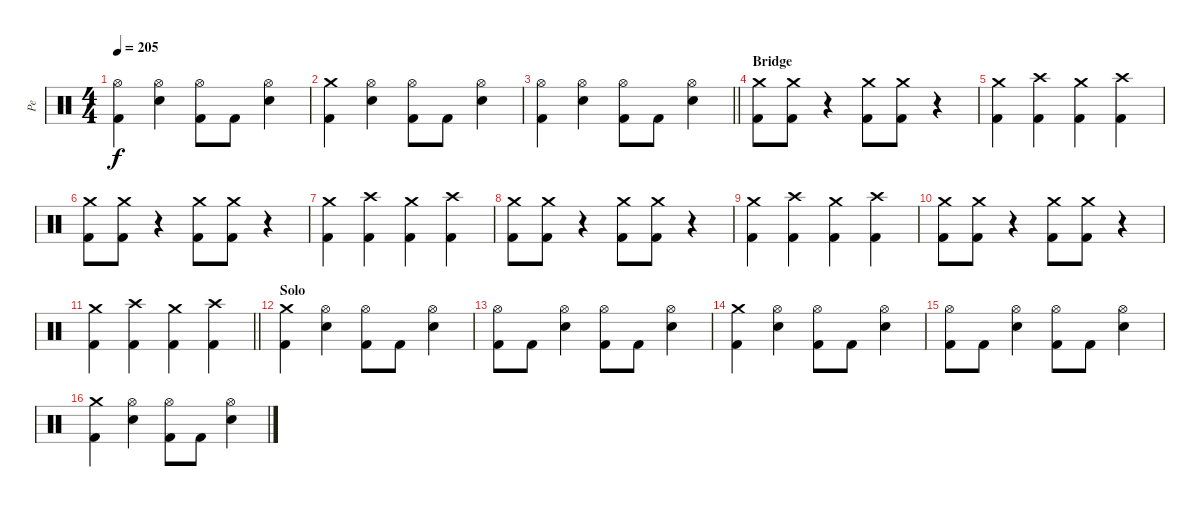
\track ("Pe" "Pe") {instrument percussion}
\staff {score}
\articulation defaults
\ts (4 4)
\tempo 205
\clef neutral
\ks c
("Hi-Hat (open)" "Kick (hit) 2").4{dy f} ("Hi-Hat (open)" "Electric Snare (hit)").4 ("Hi-Hat (open)" "Kick (hit) 2").8 "Kick (hit) 2".8 ("Hi-Hat (open)" "Electric Snare (hit)").4 |
("Crash medium (hit)" "Kick (hit) 2").4 ("Hi-Hat (open)" "Electric Snare (hit)").4 ("Hi-Hat (open)" "Kick (hit) 2").8 "Kick (hit) 2".8 ("Hi-Hat (open)" "Electric Snare (hit)").4 |
\barLineRight lightlight
("Hi-Hat (open)" "Kick (hit) 2").4 ("Hi-Hat (open)" "Electric Snare (hit)").4 ("Hi-Hat (open)" "Kick (hit) 2").8 "Kick (hit) 2".8 ("Hi-Hat (open)" "Electric Snare (hit)").4 |
\section ("" "Bridge")
("Crash medium (hit)" "Kick (hit) 2").8 ("Crash medium (hit)" "Kick (hit) 2").8 r.4 ("Crash medium (hit)" "Kick (hit) 2").8 ("Crash medium (hit)" "Kick (hit) 2").8 r.4 |
("Crash medium (hit)" "Kick (hit) 2").4 ("Crash high (hit)" "Kick (hit) 2").4 ("Crash medium (hit)" "Kick (hit) 2").4 ("Crash high (hit)" "Kick (hit) 2").4 |
("Crash medium (hit)" "Kick (hit) 2").8 ("Crash medium (hit)" "Kick (hit) 2").8 r.4 ("Crash medium (hit)" "Kick (hit) 2").8 ("Crash medium (hit)" "Kick (hit) 2").8 r.4 |
("Crash medium (hit)" "Kick (hit) 2").4 ("Crash high (hit)" "Kick (hit) 2").4 ("Crash medium (hit)" "Kick (hit) 2").4 ("Crash high (hit)" "Kick (hit) 2").4 |
("Crash medium (hit)" "Kick (hit) 2").8 ("Crash medium (hit)" "Kick (hit) 2").8 r.4 ("Crash medium (hit)" "Kick (hit) 2").8 ("Crash medium (hit)" "Kick (hit) 2").8 r.4 |
("Crash medium (hit)" "Kick (hit) 2").4 ("Crash high (hit)" "Kick (hit) 2").4 ("Crash medium (hit)" "Kick (hit) 2").4 ("Crash high (hit)" "Kick (hit) 2").4 |
("Crash medium (hit)" "Kick (hit) 2").8 ("Crash medium (hit)" "Kick (hit) 2").8 r.4 ("Crash medium (hit)" "Kick (hit) 2").8 ("Crash medium (hit)" "Kick (hit) 2").8 r.4 |
\barLineRight lightlight
("Crash medium (hit)" "Kick (hit) 2").4 ("Crash high (hit)" "Kick (hit) 2").4 ("Crash medium (hit)" "Kick (hit) 2").4 ("Crash high (hit)" "Kick (hit) 2").4 |
\section ("" "Solo")
("Crash medium (hit)" "Kick (hit) 2").4 ("Hi-Hat (open)" "Electric Snare (hit)").4 ("Hi-Hat (open)" "Kick (hit) 2").8 "Kick (hit) 2".8 ("Hi-Hat (open)" "Electric Snare (hit)").4 |
("Hi-Hat (open)" "Kick (hit) 2").8 "Kick (hit) 2".8 ("Hi-Hat (open)" "Electric Snare (hit)").4 ("Hi-Hat (open)" "Kick (hit) 2").8 "Kick (hit) 2".8 ("Hi-Hat (open)" "Electric Snare (hit)").4 |
("Crash medium (hit)" "Kick (hit) 2").4 ("Hi-Hat (open)" "Electric Snare (hit)").4 ("Hi-Hat (open)" "Kick (hit) 2").8 "Kick (hit) 2".8 ("Hi-Hat (open)" "Electric Snare (hit)").4 |
("Hi-Hat (open)" "Kick (hit) 2").8 "Kick (hit) 2".8 ("Hi-Hat (open)" "Electric Snare (hit)").4 ("Hi-Hat (open)" "Kick (hit) 2").8 "Kick (hit) 2".8 ("Hi-Hat (open)" "Electric Snare (hit)").4 |
("Crash medium (hit)" "Kick (hit) 2").4 ("Hi-Hat (open)" "Electric Snare (hit)").4 ("Hi-Hat (open)" "Kick (hit) 2").8 "Kick (hit) 2".8 ("Hi-Hat (open)" "Electric Snare (hit)").4
